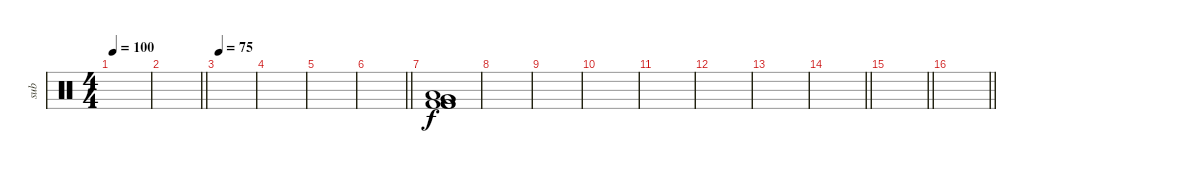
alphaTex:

\track ("sub" "sub") {instrument percussion}
\staff {score}
\articulation defaults
\ts (4 4)
\tempo 100
\clef neutral
\ks c
|
\barLineRight lightlight
|
\section ("" "")
\tempo 75
|
|
|
\barLineRight lightlight
|
\section ("" "")
("Low Floor Tom (hit)" "Very Low Tom (hit)" "Very Low Tom (hit)" "Kick (hit) 2" "Kick (hit) 2" "Kick (hit) 2").1 |
|
|
|
|
|
|
\barLineRight lightlight
|
\section ("" "")
\barLineRight lightlight
|
\barLineRight lightlight
